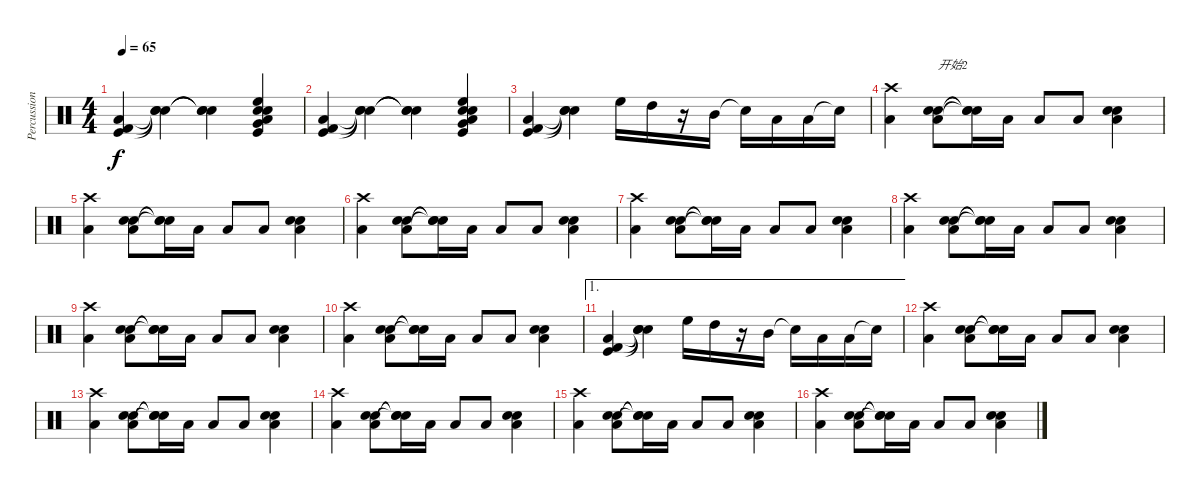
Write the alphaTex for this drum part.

\track ("Percussion" "Percussion") {instrument percussion}
\staff {score}
\articulation defaults
\ts (4 4)
\tempo 65
\clef neutral
\ks c
("Low Floor Tom (hit)" "Kick (hit)" "Kick (hit) 2").4{dy f} ("Snare (hit)"{t} "Snare (hit)"{t} "Snare (hit)"{t}).4 ("Snare (hit)"{t} "Snare (hit)"{t} "Snare (hit)"{t}).4 ("Electric Snare (hit)" "Kick (hit)" "High Floor Tom (hit)" "Hand Clap (hit)" "Low Tom (hit)" "Very Low Tom (hit)").4 |
("Low Floor Tom (hit)" "Kick (hit)" "Kick (hit) 2").4 ("Snare (hit)"{t} "Snare (hit)"{t} "Snare (hit)"{t}).4 ("Snare (hit)"{t} "Snare (hit)"{t} "Snare (hit)"{t}).4 ("Electric Snare (hit)" "Kick (hit)" "High Floor Tom (hit)" "Hand Clap (hit)" "Low Tom (hit)" "Very Low Tom (hit)").4 |
("Low Floor Tom (hit)" "Kick (hit)" "Kick (hit) 2").4 ("Snare (hit)"{t} "Snare (hit)"{t} "Snare (hit)"{t}).4 "High Floor Tom (hit)".16 "High Tom (hit)".16 r.16 "Mid Tom (hit)".16 "Snare (hit)"{t}.16 "Low Tom (hit)".16 "Low Tom (hit)".16 "Snare (hit)"{t}.16 |
("Crash high (hit)" "Low Tom (hit)").4 ("Snare (hit) 2" "Electric Snare (hit)" "Low Tom (hit)").8{txt "开始2"} ("Snare (hit)"{t} "Snare (hit)"{t} "Snare (hit)"{t}).16 "Low Tom (hit)".16 "Low Tom (hit)".8 "Low Tom (hit)".8 ("Snare (hit) 2" "Electric Snare (hit)" "Low Tom (hit)").4 |
("Crash high (hit)" "Low Tom (hit)").4 ("Snare (hit) 2" "Electric Snare (hit)" "Low Tom (hit)").8 ("Snare (hit)"{t} "Snare (hit)"{t} "Snare (hit)"{t}).16 "Low Tom (hit)".16 "Low Tom (hit)".8 "Low Tom (hit)".8 ("Snare (hit) 2" "Electric Snare (hit)" "Low Tom (hit)").4 |
("Crash high (hit)" "Low Tom (hit)").4 ("Snare (hit) 2" "Electric Snare (hit)" "Low Tom (hit)").8 ("Snare (hit)"{t} "Snare (hit)"{t} "Snare (hit)"{t}).16 "Low Tom (hit)".16 "Low Tom (hit)".8 "Low Tom (hit)".8 ("Snare (hit) 2" "Electric Snare (hit)" "Low Tom (hit)").4 |
("Crash high (hit)" "Low Tom (hit)").4 ("Snare (hit) 2" "Electric Snare (hit)" "Low Tom (hit)").8 ("Snare (hit)"{t} "Snare (hit)"{t} "Snare (hit)"{t}).16 "Low Tom (hit)".16 "Low Tom (hit)".8 "Low Tom (hit)".8 ("Snare (hit) 2" "Electric Snare (hit)" "Low Tom (hit)").4 |
("Crash high (hit)" "Low Tom (hit)").4 ("Snare (hit) 2" "Electric Snare (hit)" "Low Tom (hit)").8 ("Snare (hit)"{t} "Snare (hit)"{t} "Snare (hit)"{t}).16 "Low Tom (hit)".16 "Low Tom (hit)".8 "Low Tom (hit)".8 ("Snare (hit) 2" "Electric Snare (hit)" "Low Tom (hit)").4 |
("Crash high (hit)" "Low Tom (hit)").4 ("Snare (hit) 2" "Electric Snare (hit)" "Low Tom (hit)").8 ("Snare (hit)"{t} "Snare (hit)"{t} "Snare (hit)"{t}).16 "Low Tom (hit)".16 "Low Tom (hit)".8 "Low Tom (hit)".8 ("Snare (hit) 2" "Electric Snare (hit)" "Low Tom (hit)").4 |
("Crash high (hit)" "Low Tom (hit)").4 ("Snare (hit) 2" "Electric Snare (hit)" "Low Tom (hit)").8 ("Snare (hit)"{t} "Snare (hit)"{t} "Snare (hit)"{t}).16 "Low Tom (hit)".16 "Low Tom (hit)".8 "Low Tom (hit)".8 ("Snare (hit) 2" "Electric Snare (hit)" "Low Tom (hit)").4 |
\ae 1
("Low Floor Tom (hit)" "Kick (hit)" "Kick (hit) 2").4 ("Snare (hit)"{t} "Snare (hit)"{t} "Snare (hit)"{t}).4 "High Floor Tom (hit)".16 "High Tom (hit)".16 r.16 "Mid Tom (hit)".16 "Snare (hit)"{t}.16 "Low Tom (hit)".16 "Low Tom (hit)".16 "Snare (hit)"{t}.16 |
("Crash high (hit)" "Low Tom (hit)").4 ("Snare (hit) 2" "Electric Snare (hit)" "Low Tom (hit)").8 ("Snare (hit)"{t} "Snare (hit)"{t} "Snare (hit)"{t}).16 "Low Tom (hit)".16 "Low Tom (hit)".8 "Low Tom (hit)".8 ("Snare (hit) 2" "Electric Snare (hit)" "Low Tom (hit)").4 |
("Crash high (hit)" "Low Tom (hit)").4 ("Snare (hit) 2" "Electric Snare (hit)" "Low Tom (hit)").8 ("Snare (hit)"{t} "Snare (hit)"{t} "Snare (hit)"{t}).16 "Low Tom (hit)".16 "Low Tom (hit)".8 "Low Tom (hit)".8 ("Snare (hit) 2" "Electric Snare (hit)" "Low Tom (hit)").4 |
("Crash high (hit)" "Low Tom (hit)").4 ("Snare (hit) 2" "Electric Snare (hit)" "Low Tom (hit)").8 ("Snare (hit)"{t} "Snare (hit)"{t} "Snare (hit)"{t}).16 "Low Tom (hit)".16 "Low Tom (hit)".8 "Low Tom (hit)".8 ("Snare (hit) 2" "Electric Snare (hit)" "Low Tom (hit)").4 |
("Crash high (hit)" "Low Tom (hit)").4 ("Snare (hit) 2" "Electric Snare (hit)" "Low Tom (hit)").8 ("Snare (hit)"{t} "Snare (hit)"{t} "Snare (hit)"{t}).16 "Low Tom (hit)".16 "Low Tom (hit)".8 "Low Tom (hit)".8 ("Snare (hit) 2" "Electric Snare (hit)" "Low Tom (hit)").4 |
("Crash high (hit)" "Low Tom (hit)").4 ("Snare (hit) 2" "Electric Snare (hit)" "Low Tom (hit)").8 ("Snare (hit)"{t} "Snare (hit)"{t} "Snare (hit)"{t}).16 "Low Tom (hit)".16 "Low Tom (hit)".8 "Low Tom (hit)".8 ("Snare (hit) 2" "Electric Snare (hit)" "Low Tom (hit)").4
